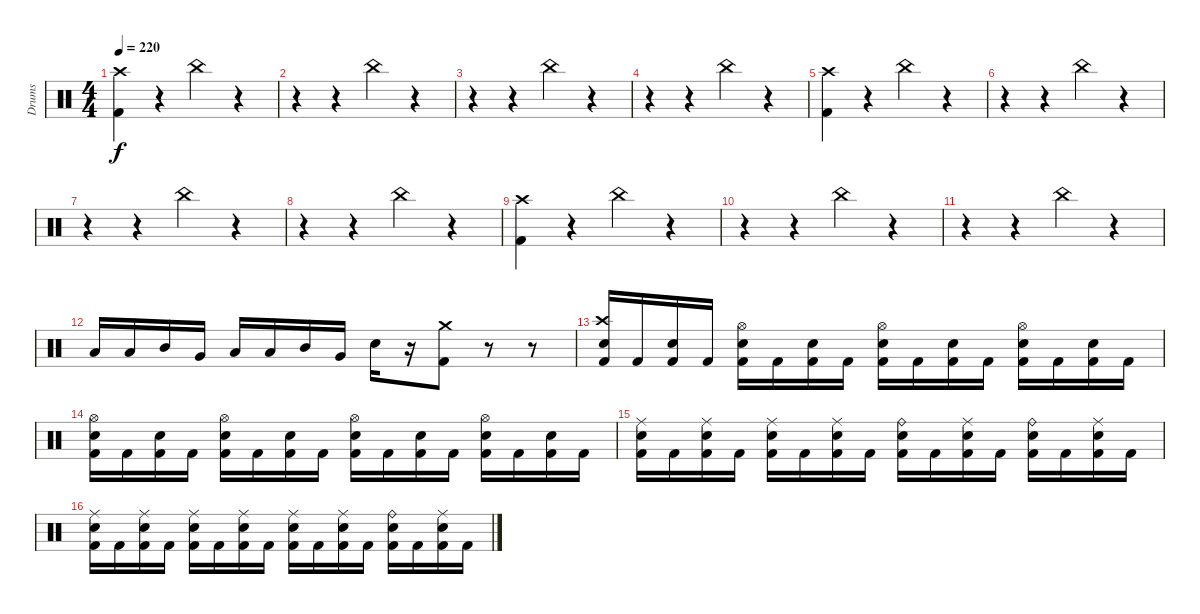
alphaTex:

\track ("Drums" "Drums") {instrument percussion}
\staff {score}
\articulation defaults
\ts (4 4)
\tempo 220
\clef neutral
\ks c
("Kick (hit) 2" "Crash high (hit)").4{dy f} r.4 "China (hit)".4 r.4 |
r.4 r.4 "China (hit)".4 r.4 |
r.4 r.4 "China (hit)".4 r.4 |
r.4 r.4 "China (hit)".4 r.4 |
("Kick (hit) 2" "Crash high (hit)").4 r.4 "China (hit)".4 r.4 |
r.4 r.4 "China (hit)".4 r.4 |
r.4 r.4 "China (hit)".4 r.4 |
r.4 r.4 "China (hit)".4 r.4 |
("Kick (hit) 2" "Crash high (hit)").4 r.4 "China (hit)".4 r.4 |
r.4 r.4 "China (hit)".4 r.4 |
r.4 r.4 "China (hit)".4 r.4 |
"Low Tom (hit)".16 "Low Tom (hit)".16 "Mid Tom (hit)".16 "Very Low Tom (hit)".16 "Low Tom (hit)".16 "Low Tom (hit)".16 "Mid Tom (hit)".16 "Very Low Tom (hit)".16 "Electric Snare (hit)".16 r.16 ("Kick (hit) 2" "Crash medium (hit)").8 r.8 r.8 |
("Electric Snare (hit)" "Kick (hit) 2" "Crash high (hit)").16 "Kick (hit) 2".16 ("Electric Snare (hit)" "Kick (hit) 2").16 "Kick (hit) 2".16 ("Electric Snare (hit)" "Kick (hit) 2" "Hi-Hat (open)").16 "Kick (hit) 2".16 ("Electric Snare (hit)" "Kick (hit) 2").16 "Kick (hit) 2".16 ("Electric Snare (hit)" "Kick (hit) 2" "Hi-Hat (open)").16 "Kick (hit) 2".16 ("Electric Snare (hit)" "Kick (hit) 2").16 "Kick (hit) 2".16 ("Electric Snare (hit)" "Kick (hit) 2" "Hi-Hat (open)").16 "Kick (hit) 2".16 ("Electric Snare (hit)" "Kick (hit) 2").16 "Kick (hit) 2".16 |
("Electric Snare (hit)" "Kick (hit) 2" "Hi-Hat (open)").16 "Kick (hit) 2".16 ("Electric Snare (hit)" "Kick (hit) 2").16 "Kick (hit) 2".16 ("Electric Snare (hit)" "Kick (hit) 2" "Hi-Hat (open)").16 "Kick (hit) 2".16 ("Electric Snare (hit)" "Kick (hit) 2").16 "Kick (hit) 2".16 ("Electric Snare (hit)" "Kick (hit) 2" "Hi-Hat (open)").16 "Kick (hit) 2".16 ("Electric Snare (hit)" "Kick (hit) 2").16 "Kick (hit) 2".16 ("Electric Snare (hit)" "Kick (hit) 2" "Hi-Hat (open)").16 "Kick (hit) 2".16 ("Electric Snare (hit)" "Kick (hit) 2").16 "Kick (hit) 2".16 |
("Electric Snare (hit)" "Kick (hit) 2" "Ride (middle)").16 "Kick (hit) 2".16 ("Electric Snare (hit)" "Kick (hit) 2" "Ride (middle)").16 "Kick (hit) 2".16 ("Electric Snare (hit)" "Kick (hit) 2" "Ride (middle)").16 "Kick (hit) 2".16 ("Electric Snare (hit)" "Kick (hit) 2" "Ride (middle)").16 "Kick (hit) 2".16 ("Electric Snare (hit)" "Kick (hit) 2" "Ride (bell)").16 "Kick (hit) 2".16 ("Electric Snare (hit)" "Kick (hit) 2" "Ride (middle)").16 "Kick (hit) 2".16 ("Electric Snare (hit)" "Kick (hit) 2" "Ride (bell)").16 "Kick (hit) 2".16 ("Electric Snare (hit)" "Kick (hit) 2" "Ride (middle)").16 "Kick (hit) 2".16 |
("Electric Snare (hit)" "Kick (hit) 2" "Ride (middle)").16 "Kick (hit) 2".16 ("Electric Snare (hit)" "Kick (hit) 2" "Ride (middle)").16 "Kick (hit) 2".16 ("Electric Snare (hit)" "Kick (hit) 2" "Ride (middle)").16 "Kick (hit) 2".16 ("Electric Snare (hit)" "Kick (hit) 2" "Ride (middle)").16 "Kick (hit) 2".16 ("Electric Snare (hit)" "Kick (hit) 2" "Ride (middle)").16 "Kick (hit) 2".16 ("Electric Snare (hit)" "Kick (hit) 2" "Ride (middle)").16 "Kick (hit) 2".16 ("Electric Snare (hit)" "Kick (hit) 2" "Ride (bell)").16 "Kick (hit) 2".16 ("Electric Snare (hit)" "Kick (hit) 2" "Ride (middle)").16 "Kick (hit) 2".16
